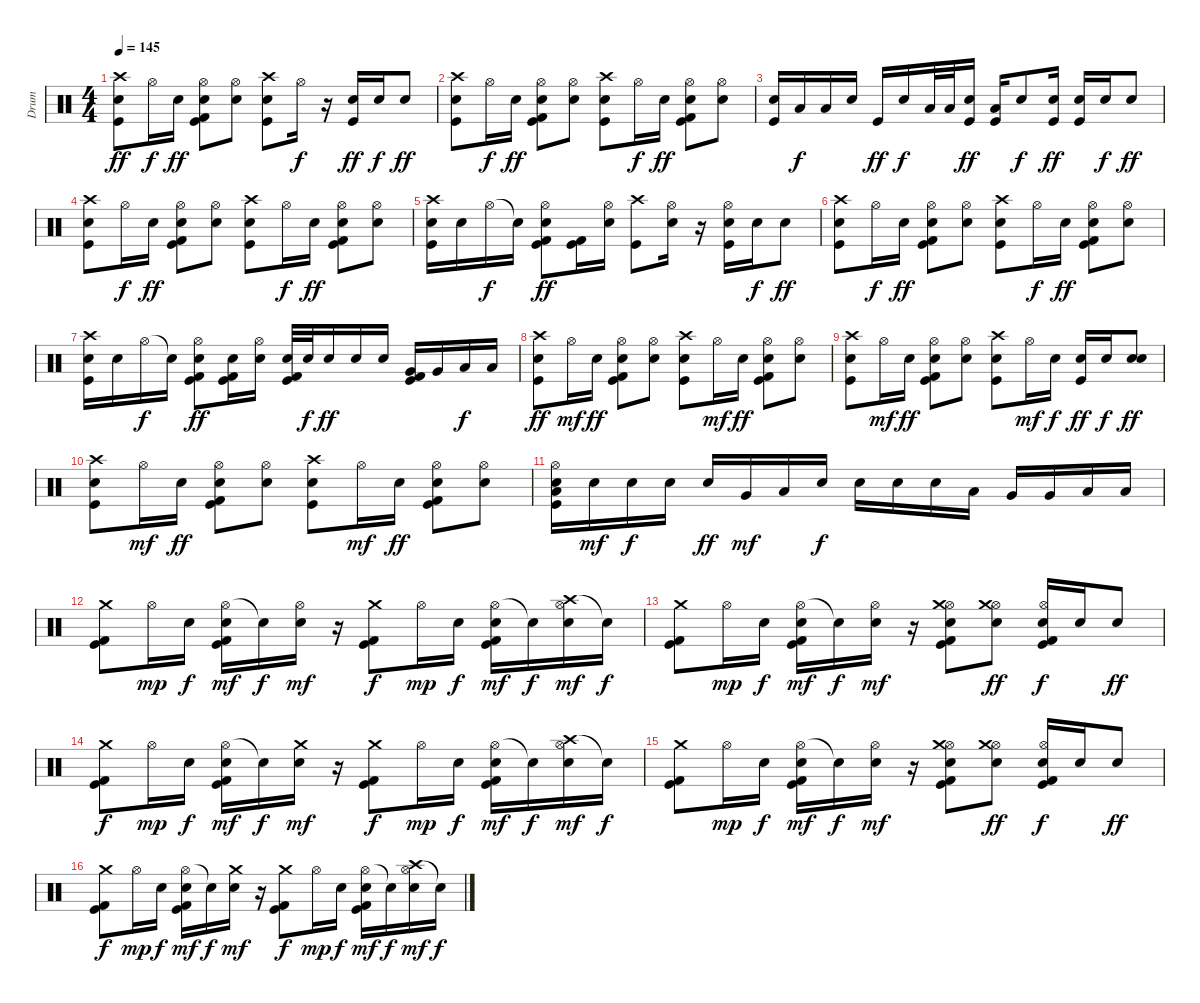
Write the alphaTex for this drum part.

\track ("Drum" "Drum") {instrument percussion}
\staff {score}
\articulation defaults
\ts (4 4)
\tempo 145
\clef neutral
\ks c
("Crash high (hit)" "Electric Snare (hit)" "Kick (hit)").8{dy ff} "Hi-Hat (open)".16{dy f} "Electric Snare (hit)".16{dy ff} ("Hi-Hat (open)" "Electric Snare (hit)" "Kick (hit) 2" "Kick (hit)").8 ("Hi-Hat (open)" "Electric Snare (hit)").8 ("Crash high (hit)" "Electric Snare (hit)" "Kick (hit)").8 "Hi-Hat (open)".16{dy f} r.16 ("Electric Snare (hit)" "Kick (hit)").16{dy ff} "Electric Snare (hit)".16{dy f} "Electric Snare (hit)".8{dy ff} |
("Crash high (hit)" "Electric Snare (hit)" "Kick (hit)").8 "Hi-Hat (open)".16{dy f} "Electric Snare (hit)".16{dy ff} ("Hi-Hat (open)" "Electric Snare (hit)" "Kick (hit) 2" "Kick (hit)").8 ("Hi-Hat (open)" "Electric Snare (hit)").8 ("Crash high (hit)" "Electric Snare (hit)" "Kick (hit)").8 "Hi-Hat (open)".16{dy f} "Electric Snare (hit)".16{dy ff} ("Hi-Hat (open)" "Electric Snare (hit)" "Kick (hit) 2" "Kick (hit)").8 ("Hi-Hat (open)" "Electric Snare (hit)").8 |
("Electric Snare (hit)" "Kick (hit)").16 "Low Tom (hit)".16{dy f} "Low Floor Tom (hit)".16 "Electric Snare (hit)".16 "Kick (hit)".16{dy ff} "Electric Snare (hit)".16{dy f} "Low Floor Tom (hit)".32 "Low Tom (hit)".32 ("Electric Snare (hit)" "Kick (hit)").16{dy ff} ("Low Tom (hit)" "Kick (hit)").16 "Electric Snare (hit)".8{dy f} ("Electric Snare (hit)" "Kick (hit)").16{dy ff} ("Electric Snare (hit)" "Kick (hit)").16 "Electric Snare (hit)".16{dy f} "Electric Snare (hit)".8{dy ff} |
("Crash high (hit)" "Electric Snare (hit)" "Kick (hit)").8 "Hi-Hat (open)".16{dy f} "Electric Snare (hit)".16{dy ff} ("Hi-Hat (open)" "Electric Snare (hit)" "Kick (hit) 2" "Kick (hit)").8 ("Hi-Hat (open)" "Electric Snare (hit)").8 ("Crash high (hit)" "Electric Snare (hit)" "Kick (hit)").8 "Hi-Hat (open)".16{dy f} "Electric Snare (hit)".16{dy ff} ("Hi-Hat (open)" "Electric Snare (hit)" "Kick (hit) 2" "Kick (hit)").8 ("Hi-Hat (open)" "Electric Snare (hit)").8 |
("Crash high (hit)" "Electric Snare (hit)" "Kick (hit)").16 "Electric Snare (hit)".16 "Hi-Hat (open)".16{dy f} "Snare (hit)"{t}.16 ("Hi-Hat (open)" "Electric Snare (hit)" "Kick (hit) 2" "Kick (hit)").8{dy ff} ("Kick (hit) 2" "Kick (hit)").16 ("Hi-Hat (open)" "Electric Snare (hit)").16 ("Crash high (hit)" "Kick (hit)").8 ("Hi-Hat (open)" "Electric Snare (hit)").16 r.16 ("Hi-Hat (open)" "Electric Snare (hit)" "Kick (hit)").16 "Electric Snare (hit)".16{dy f} "Electric Snare (hit)".8{dy ff} |
("Crash high (hit)" "Electric Snare (hit)" "Kick (hit)").8 "Hi-Hat (open)".16{dy f} "Electric Snare (hit)".16{dy ff} ("Hi-Hat (open)" "Electric Snare (hit)" "Kick (hit) 2" "Kick (hit)").8 ("Hi-Hat (open)" "Electric Snare (hit)").8 ("Crash high (hit)" "Electric Snare (hit)" "Kick (hit)").8 "Hi-Hat (open)".16{dy f} "Electric Snare (hit)".16{dy ff} ("Hi-Hat (open)" "Electric Snare (hit)" "Kick (hit) 2" "Kick (hit)").8 ("Hi-Hat (open)" "Electric Snare (hit)").8 |
("Crash high (hit)" "Electric Snare (hit)" "Kick (hit)").16 "Electric Snare (hit)".16 "Hi-Hat (open)".16{dy f} "Snare (hit)"{t}.16 ("Hi-Hat (open)" "Electric Snare (hit)" "Kick (hit) 2" "Kick (hit)").8{dy ff} ("Electric Snare (hit)" "Kick (hit) 2" "Kick (hit)").16 ("Hi-Hat (open)" "Electric Snare (hit)").16 ("Electric Snare (hit)" "Kick (hit) 2" "Kick (hit)").32 "Electric Snare (hit)".32{dy f} "Electric Snare (hit)".16{dy ff} "Electric Snare (hit)".16 "Electric Snare (hit)".16 ("Very Low Tom (hit)" "Kick (hit) 2" "Kick (hit)").16 "Very Low Tom (hit)".16 "Low Floor Tom (hit)".16{dy f} "Low Floor Tom (hit)".16 |
("Crash high (hit)" "Electric Snare (hit)" "Kick (hit)").8{dy ff} "Hi-Hat (open)".16{dy mf} "Electric Snare (hit)".16{dy ff} ("Hi-Hat (open)" "Electric Snare (hit)" "Kick (hit) 2" "Kick (hit)").8 ("Hi-Hat (open)" "Electric Snare (hit)").8 ("Crash high (hit)" "Electric Snare (hit)" "Kick (hit)").8 "Hi-Hat (open)".16{dy mf} "Electric Snare (hit)".16{dy ff} ("Hi-Hat (open)" "Electric Snare (hit)" "Kick (hit) 2" "Kick (hit)").8 ("Hi-Hat (open)" "Electric Snare (hit)").8 |
("Crash high (hit)" "Electric Snare (hit)" "Kick (hit)").8 "Hi-Hat (open)".16{dy mf} "Electric Snare (hit)".16{dy ff} ("Hi-Hat (open)" "Electric Snare (hit)" "Kick (hit) 2" "Kick (hit)").8 ("Hi-Hat (open)" "Electric Snare (hit)").8 ("Crash high (hit)" "Electric Snare (hit)" "Kick (hit)").8 "Hi-Hat (open)".16{dy mf} "Electric Snare (hit)".16{dy f} ("Electric Snare (hit)" "Kick (hit)").16{dy ff} "Electric Snare (hit)".16{dy f} ("Electric Snare (hit)" "Snare (hit) 2").8{dy ff} |
("Crash high (hit)" "Electric Snare (hit)" "Kick (hit)").8 "Hi-Hat (open)".16{dy mf} "Electric Snare (hit)".16{dy ff} ("Hi-Hat (open)" "Electric Snare (hit)" "Kick (hit) 2" "Kick (hit)").8 ("Hi-Hat (open)" "Electric Snare (hit)").8 ("Crash high (hit)" "Electric Snare (hit)" "Kick (hit)").8 "Hi-Hat (open)".16{dy mf} "Electric Snare (hit)".16{dy ff} ("Hi-Hat (open)" "Electric Snare (hit)" "Kick (hit) 2" "Kick (hit)").8 ("Hi-Hat (open)" "Electric Snare (hit)").8 |
("Hi-Hat (open)" "Electric Snare (hit)" "Low Floor Tom (hit)" "Kick (hit)").16 "Electric Snare (hit)".16{dy mf} "Electric Snare (hit)".16{dy f} "Electric Snare (hit)".16 "Electric Snare (hit)".16{dy ff} "Very Low Tom (hit)".16{dy mf} "Low Floor Tom (hit)".16 "Snare (hit) 2".16{dy f} "Electric Snare (hit)".16 "Electric Snare (hit)".16 "Electric Snare (hit)".16 "Low Tom (hit)".16 "Very Low Tom (hit)".16 "Very Low Tom (hit)".16 "Low Floor Tom (hit)".16 "Low Floor Tom (hit)".16 |
("Crash medium (hit)" "Kick (hit) 2" "Kick (hit)").8 "Hi-Hat (open)".16{dy mp} "Electric Snare (hit)".16{dy f} ("Hi-Hat (open)" "Electric Snare (hit)" "Kick (hit) 2" "Kick (hit)").16{dy mf} "Snare (hit)"{t}.16{dy f} ("Hi-Hat (open)" "Electric Snare (hit)").16{dy mf} r.16 ("Crash medium (hit)" "Kick (hit) 2" "Kick (hit)").8{dy f} "Hi-Hat (open)".16{dy mp} "Electric Snare (hit)".16{dy f} ("Hi-Hat (open)" "Electric Snare (hit)" "Kick (hit) 2" "Kick (hit)").16{dy mf} "Snare (hit)"{t}.16{dy f} ("Crash high (hit)" "Hi-Hat (open)" "Electric Snare (hit)").16{dy mf} "Snare (hit)"{t}.16{dy f} |
("Crash medium (hit)" "Kick (hit) 2" "Kick (hit)").8 "Hi-Hat (open)".16{dy mp} "Electric Snare (hit)".16{dy f} ("Hi-Hat (open)" "Electric Snare (hit)" "Kick (hit) 2" "Kick (hit)").16{dy mf} "Snare (hit)"{t}.16{dy f} ("Hi-Hat (open)" "Electric Snare (hit)").16{dy mf} r.16 ("Hi-Hat (open)" "Crash medium (hit)" "Electric Snare (hit)" "Kick (hit) 2" "Kick (hit)").8 ("Hi-Hat (open)" "Crash medium (hit)" "Electric Snare (hit)").8{dy ff} ("Hi-Hat (open)" "Electric Snare (hit)" "Kick (hit) 2" "Kick (hit)").16{dy f} "Electric Snare (hit)".16 "Electric Snare (hit)".8{dy ff} |
("Crash medium (hit)" "Kick (hit) 2" "Kick (hit)").8{dy f} "Hi-Hat (open)".16{dy mp} "Electric Snare (hit)".16{dy f} ("Hi-Hat (open)" "Electric Snare (hit)" "Kick (hit) 2" "Kick (hit)").16{dy mf} "Snare (hit)"{t}.16{dy f} ("Crash medium (hit)" "Electric Snare (hit)").16{dy mf} r.16 ("Crash medium (hit)" "Kick (hit) 2" "Kick (hit)").8{dy f} "Hi-Hat (open)".16{dy mp} "Electric Snare (hit)".16{dy f} ("Hi-Hat (open)" "Electric Snare (hit)" "Kick (hit) 2" "Kick (hit)").16{dy mf} "Snare (hit)"{t}.16{dy f} ("Crash high (hit)" "Hi-Hat (open)" "Electric Snare (hit)").16{dy mf} "Snare (hit)"{t}.16{dy f} |
("Crash medium (hit)" "Kick (hit) 2" "Kick (hit)").8 "Hi-Hat (open)".16{dy mp} "Electric Snare (hit)".16{dy f} ("Hi-Hat (open)" "Electric Snare (hit)" "Kick (hit) 2" "Kick (hit)").16{dy mf} "Snare (hit)"{t}.16{dy f} ("Hi-Hat (open)" "Electric Snare (hit)").16{dy mf} r.16 ("Hi-Hat (open)" "Crash medium (hit)" "Electric Snare (hit)" "Kick (hit) 2" "Kick (hit)").8 ("Hi-Hat (open)" "Crash medium (hit)" "Electric Snare (hit)").8{dy ff} ("Hi-Hat (open)" "Electric Snare (hit)" "Kick (hit) 2" "Kick (hit)").16{dy f} "Electric Snare (hit)".16 "Electric Snare (hit)".8{dy ff} |
("Crash medium (hit)" "Kick (hit) 2" "Kick (hit)").8{dy f} "Hi-Hat (open)".16{dy mp} "Electric Snare (hit)".16{dy f} ("Hi-Hat (open)" "Electric Snare (hit)" "Kick (hit) 2" "Kick (hit)").16{dy mf} "Snare (hit)"{t}.16{dy f} ("Crash medium (hit)" "Electric Snare (hit)").16{dy mf} r.16 ("Crash medium (hit)" "Kick (hit) 2" "Kick (hit)").8{dy f} "Hi-Hat (open)".16{dy mp} "Electric Snare (hit)".16{dy f} ("Hi-Hat (open)" "Electric Snare (hit)" "Kick (hit) 2" "Kick (hit)").16{dy mf} "Snare (hit)"{t}.16{dy f} ("Crash high (hit)" "Hi-Hat (open)" "Electric Snare (hit)").16{dy mf} "Snare (hit)"{t}.16{dy f}
